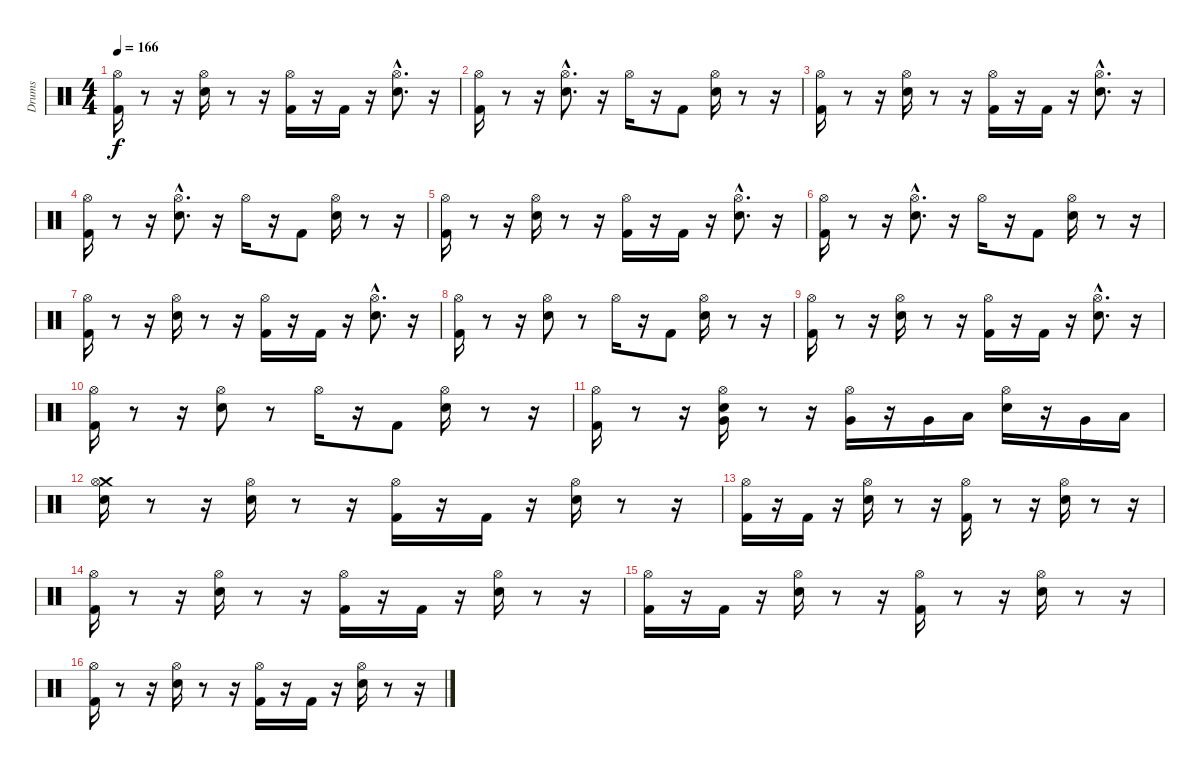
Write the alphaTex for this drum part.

\track ("Drums" "Drums") {instrument percussion}
\staff {score}
\articulation defaults
\ts (4 4)
\tempo 166
\clef neutral
\ks c
("Kick (hit) 2" "Hi-Hat (open)").16{dy f} r.8 r.16 ("Snare (hit) 2" "Hi-Hat (open)").16 r.8 r.16 ("Kick (hit) 2" "Hi-Hat (open)").16 r.16 "Kick (hit) 2".16 r.16 ("Snare (hit) 2"{hac} "Hi-Hat (open)"{hac}).8{d} r.16 |
("Kick (hit) 2" "Hi-Hat (open)").16 r.8 r.16 ("Hi-Hat (open)"{hac} "Snare (hit) 2"{hac}).8{d} r.16 "Hi-Hat (open)".16 r.16 "Kick (hit) 2".8 ("Snare (hit) 2" "Hi-Hat (open)").16 r.8 r.16 |
("Kick (hit) 2" "Hi-Hat (open)").16 r.8 r.16 ("Snare (hit) 2" "Hi-Hat (open)").16 r.8 r.16 ("Kick (hit) 2" "Hi-Hat (open)").16 r.16 "Kick (hit) 2".16 r.16 ("Snare (hit) 2"{hac} "Hi-Hat (open)"{hac}).8{d} r.16 |
("Kick (hit) 2" "Hi-Hat (open)").16 r.8 r.16 ("Hi-Hat (open)"{hac} "Snare (hit) 2"{hac}).8{d} r.16 "Hi-Hat (open)".16 r.16 "Kick (hit) 2".8 ("Snare (hit) 2" "Hi-Hat (open)").16 r.8 r.16 |
("Kick (hit) 2" "Hi-Hat (open)").16 r.8 r.16 ("Snare (hit) 2" "Hi-Hat (open)").16 r.8 r.16 ("Kick (hit) 2" "Hi-Hat (open)").16 r.16 "Kick (hit) 2".16 r.16 ("Snare (hit) 2"{hac} "Hi-Hat (open)"{hac}).8{d} r.16 |
("Kick (hit) 2" "Hi-Hat (open)").16 r.8 r.16 ("Hi-Hat (open)"{hac} "Snare (hit) 2"{hac}).8{d} r.16 "Hi-Hat (open)".16 r.16 "Kick (hit) 2".8 ("Snare (hit) 2" "Hi-Hat (open)").16 r.8 r.16 |
("Kick (hit) 2" "Hi-Hat (open)").16 r.8 r.16 ("Snare (hit) 2" "Hi-Hat (open)").16 r.8 r.16 ("Kick (hit) 2" "Hi-Hat (open)").16 r.16 "Kick (hit) 2".16 r.16 ("Snare (hit) 2"{hac} "Hi-Hat (open)"{hac}).8{d} r.16 |
("Kick (hit) 2" "Hi-Hat (open)").16 r.8 r.16 ("Hi-Hat (open)" "Snare (hit) 2").8 r.8 "Hi-Hat (open)".16 r.16 "Kick (hit) 2".8 ("Snare (hit) 2" "Hi-Hat (open)").16 r.8 r.16 |
("Kick (hit) 2" "Hi-Hat (open)").16 r.8 r.16 ("Snare (hit) 2" "Hi-Hat (open)").16 r.8 r.16 ("Kick (hit) 2" "Hi-Hat (open)").16 r.16 "Kick (hit) 2".16 r.16 ("Snare (hit) 2"{hac} "Hi-Hat (open)"{hac}).8{d} r.16 |
("Kick (hit) 2" "Hi-Hat (open)").16 r.8 r.16 ("Hi-Hat (open)" "Snare (hit) 2").8 r.8 "Hi-Hat (open)".16 r.16 "Kick (hit) 2".8 ("Snare (hit) 2" "Hi-Hat (open)").16 r.8 r.16 |
("Kick (hit) 2" "Hi-Hat (open)").16 r.8 r.16 ("Snare (hit) 2" "Hi-Hat (open)" "Very Low Tom (hit)").16 r.8 r.16 ("Very Low Tom (hit)" "Hi-Hat (open)").16 r.16 "Very Low Tom (hit)".16 "Low Floor Tom (hit)".16 ("Electric Snare (hit)" "Hi-Hat (open)").16 r.16 "Very Low Tom (hit)".16 "Low Floor Tom (hit)".16 |
("Crash medium (hit)" "Hi-Hat (open)" "Electric Snare (hit)").16 r.8 r.16 ("Snare (hit) 2" "Hi-Hat (open)").16 r.8 r.16 ("Kick (hit) 2" "Hi-Hat (open)").16 r.16 "Kick (hit) 2".16 r.16 ("Hi-Hat (open)" "Snare (hit) 2").16 r.8 r.16 |
("Hi-Hat (open)" "Kick (hit) 2").16 r.16 "Kick (hit) 2".16 r.16 ("Snare (hit) 2" "Hi-Hat (open)").16 r.8 r.16 ("Hi-Hat (open)" "Kick (hit) 2").16 r.8 r.16 ("Hi-Hat (open)" "Snare (hit) 2").16 r.8 r.16 |
("Hi-Hat (open)" "Kick (hit) 2").16 r.8 r.16 ("Snare (hit) 2" "Hi-Hat (open)").16 r.8 r.16 ("Kick (hit) 2" "Hi-Hat (open)").16 r.16 "Kick (hit) 2".16 r.16 ("Hi-Hat (open)" "Snare (hit) 2").16 r.8 r.16 |
("Hi-Hat (open)" "Kick (hit) 2").16 r.16 "Kick (hit) 2".16 r.16 ("Snare (hit) 2" "Hi-Hat (open)").16 r.8 r.16 ("Hi-Hat (open)" "Kick (hit) 2").16 r.8 r.16 ("Hi-Hat (open)" "Snare (hit) 2").16 r.8 r.16 |
("Hi-Hat (open)" "Kick (hit) 2").16 r.8 r.16 ("Snare (hit) 2" "Hi-Hat (open)").16 r.8 r.16 ("Kick (hit) 2" "Hi-Hat (open)").16 r.16 "Kick (hit) 2".16 r.16 ("Hi-Hat (open)" "Snare (hit) 2").16 r.8 r.16
